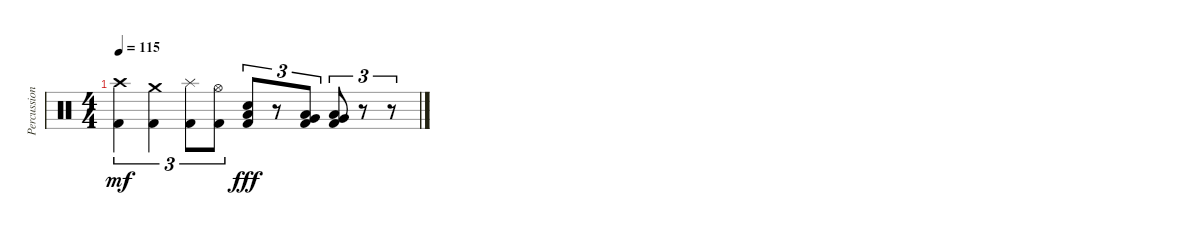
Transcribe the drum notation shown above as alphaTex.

\track ("Percussion" "Percussion") {instrument percussion}
\staff {score}
\articulation defaults
\ts (4 4)
\tempo 115
\clef neutral
\ks c
("Crash high (hit)" "Kick (hit) 2").4{tu (3 2) dy mf} ("Crash medium (hit)" "Kick (hit) 2").4{tu (3 2)} ("Splash (hit)" "Kick (hit) 2").8{tu (3 2)} ("Hi-Hat (open)" "Kick (hit) 2").8{tu (3 2)} ("Low Tom (hit)" "Electric Snare (hit)" "Kick (hit) 2").8{tu (3 2) dy fff} r.8{tu (3 2)} ("Low Tom (hit)" "Very Low Tom (hit)" "Kick (hit) 2").8{tu (3 2)} ("Very Low Tom (hit)" "Low Floor Tom (hit)" "Kick (hit) 2").8{tu (3 2)} r.8{tu (3 2)} r.8{tu (3 2)}
